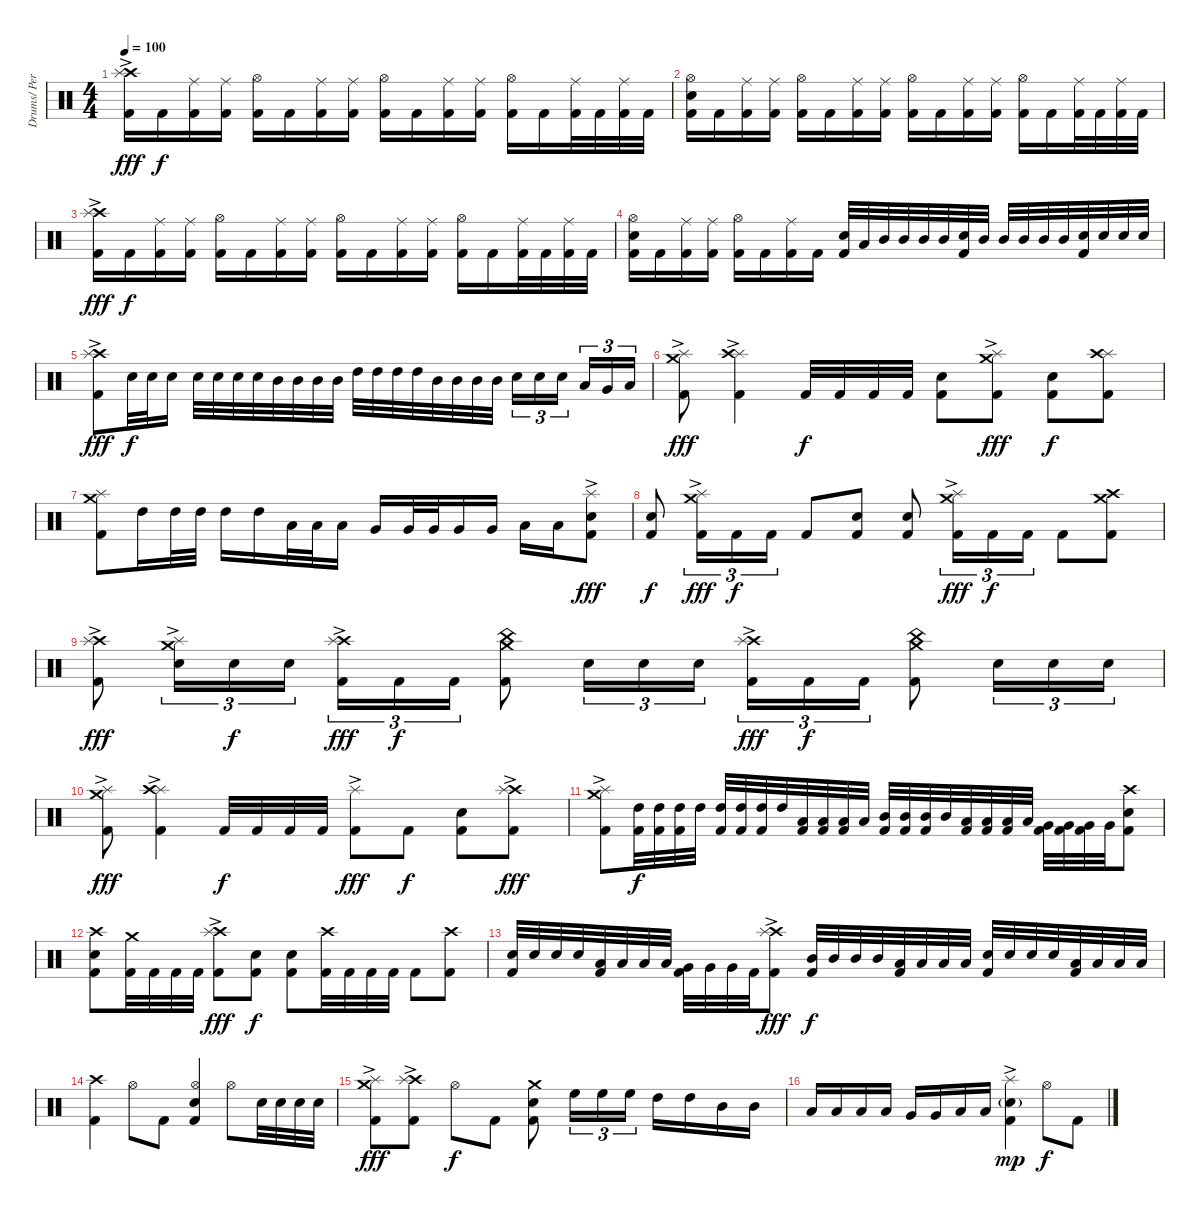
\track ("Drums/ Percussion - Tony Laureano" "Drums/ Per") {instrument percussion}
\staff {score}
\articulation defaults
\ts (4 4)
\tempo 100
\clef neutral
\ks c
("Crash high (hit)" "Splash (hit)"{ac} "Kick (hit) 2").16{dy fff} "Kick (hit) 2".16{dy f} ("Ride (middle)" "Kick (hit) 2").16 ("Ride (middle)" "Kick (hit) 2").16 ("Hi-Hat (open)" "Kick (hit) 2").16 "Kick (hit) 2".16 ("Ride (middle)" "Kick (hit) 2").16 ("Ride (middle)" "Kick (hit) 2").16 ("Hi-Hat (open)" "Kick (hit) 2").16 "Kick (hit) 2".16 ("Ride (middle)" "Kick (hit) 2").16 ("Ride (middle)" "Kick (hit) 2").16 ("Hi-Hat (open)" "Kick (hit) 2").16 "Kick (hit) 2".16 ("Ride (middle)" "Kick (hit) 2").32 "Kick (hit) 2".32 ("Ride (middle)" "Kick (hit) 2").32 "Kick (hit) 2".32 |
("Hi-Hat (open)" "Electric Snare (hit)" "Kick (hit) 2").16 "Kick (hit) 2".16 ("Ride (middle)" "Kick (hit) 2").16 ("Ride (middle)" "Kick (hit) 2").16 ("Hi-Hat (open)" "Kick (hit) 2").16 "Kick (hit) 2".16 ("Ride (middle)" "Kick (hit) 2").16 ("Ride (middle)" "Kick (hit) 2").16 ("Hi-Hat (open)" "Kick (hit) 2").16 "Kick (hit) 2".16 ("Ride (middle)" "Kick (hit) 2").16 ("Ride (middle)" "Kick (hit) 2").16 ("Hi-Hat (open)" "Kick (hit) 2").16 "Kick (hit) 2".16 ("Ride (middle)" "Kick (hit) 2").32 "Kick (hit) 2".32 ("Ride (middle)" "Kick (hit) 2").32 "Kick (hit) 2".32 |
("Crash high (hit)" "Splash (hit)"{ac} "Kick (hit) 2").16{dy fff} "Kick (hit) 2".16{dy f} ("Ride (middle)" "Kick (hit) 2").16 ("Ride (middle)" "Kick (hit) 2").16 ("Hi-Hat (open)" "Kick (hit) 2").16 "Kick (hit) 2".16 ("Ride (middle)" "Kick (hit) 2").16 ("Ride (middle)" "Kick (hit) 2").16 ("Hi-Hat (open)" "Kick (hit) 2").16 "Kick (hit) 2".16 ("Ride (middle)" "Kick (hit) 2").16 ("Ride (middle)" "Kick (hit) 2").16 ("Hi-Hat (open)" "Kick (hit) 2").16 "Kick (hit) 2".16 ("Ride (middle)" "Kick (hit) 2").32 "Kick (hit) 2".32 ("Ride (middle)" "Kick (hit) 2").32 "Kick (hit) 2".32 |
("Hi-Hat (open)" "Electric Snare (hit)" "Kick (hit) 2").16 "Kick (hit) 2".16 ("Ride (middle)" "Kick (hit) 2").16 ("Ride (middle)" "Kick (hit) 2").16 ("Hi-Hat (open)" "Kick (hit) 2").16 "Kick (hit) 2".16 ("Ride (middle)" "Kick (hit) 2").16 "Kick (hit) 2".16 ("Electric Snare (hit)" "Kick (hit) 2").32 "Low Tom (hit)".32 "Mid Tom (hit)".32 "Mid Tom (hit)".32 "Mid Tom (hit)".32 "Mid Tom (hit)".32 ("Electric Snare (hit)" "Kick (hit) 2").32 "Mid Tom (hit)".32 "Mid Tom (hit)".32 "Mid Tom (hit)".32 "Mid Tom (hit)".32 "Mid Tom (hit)".32 ("Electric Snare (hit)" "Kick (hit) 2").32 "Electric Snare (hit)".32 "Electric Snare (hit)".32 "Electric Snare (hit)".32 |
("Crash high (hit)" "Splash (hit)"{ac} "Kick (hit) 2").8{dy fff} "Electric Snare (hit)".32{dy f} "Electric Snare (hit)".32 "Electric Snare (hit)".16 "Electric Snare (hit)".32 "Electric Snare (hit)".32 "Electric Snare (hit)".32 "Electric Snare (hit)".32 "Mid Tom (hit)".32 "Mid Tom (hit)".32 "Mid Tom (hit)".32 "Mid Tom (hit)".32 "High Tom (hit)".32 "High Tom (hit)".32 "High Tom (hit)".32 "High Tom (hit)".32 "Mid Tom (hit)".32 "Mid Tom (hit)".32 "Mid Tom (hit)".32 "Mid Tom (hit)".32 "Electric Snare (hit)".16{tu (3 2)} "Electric Snare (hit)".16{tu (3 2)} "Electric Snare (hit)".16{tu (3 2)} "Low Tom (hit)".16{tu (3 2)} "Very Low Tom (hit)".16{tu (3 2)} "Low Floor Tom (hit)".16{tu (3 2)} |
("Splash (hit)"{ac} "Crash medium (hit)" "Kick (hit) 2").8{dy fff} ("Splash (hit)"{ac} "Crash high (hit)" "Kick (hit) 2").4 "Kick (hit) 2".32{dy f} "Kick (hit) 2".32 "Kick (hit) 2".32 "Kick (hit) 2".32 ("Electric Snare (hit)" "Kick (hit) 2").8 ("Splash (hit)"{ac} "Crash medium (hit)" "Kick (hit) 2").8{dy fff} ("Electric Snare (hit)" "Kick (hit) 2").8{dy f} ("Splash (hit)" "Crash high (hit)" "Kick (hit) 2").8 |
("Splash (hit)" "Crash medium (hit)" "Kick (hit) 2").8 "High Tom (hit)".16 "High Tom (hit)".32 "High Tom (hit)".32 "High Tom (hit)".16 "High Tom (hit)".16 "Low Tom (hit)".32 "Low Tom (hit)".32 "Low Tom (hit)".16 "Very Low Tom (hit)".16 "Very Low Tom (hit)".32 "Very Low Tom (hit)".32 "Very Low Tom (hit)".16 "Very Low Tom (hit)".16 "Low Floor Tom (hit)".16 "Low Floor Tom (hit)".16 ("Splash (hit)"{ac} "Electric Snare (hit)" "Kick (hit) 2").8{dy fff} |
("Electric Snare (hit)" "Kick (hit) 2").8{dy f} ("Splash (hit)"{ac} "Crash medium (hit)" "Kick (hit) 2").16{tu (3 2) dy fff} "Kick (hit) 2".16{tu (3 2) dy f} "Kick (hit) 2".16{tu (3 2)} "Kick (hit) 2".8 ("Electric Snare (hit)" "Kick (hit) 2").8 ("Electric Snare (hit)" "Kick (hit) 2").8 ("Splash (hit)"{ac} "Crash medium (hit)" "Kick (hit) 2").16{tu (3 2) dy fff} "Kick (hit) 2".16{tu (3 2) dy f} "Kick (hit) 2".16{tu (3 2)} "Kick (hit) 2".8 ("Crash medium (hit)" "Crash high (hit)" "Kick (hit) 2").8 |
("Crash high (hit)" "Splash (hit)"{ac} "Kick (hit) 2").8{dy fff} ("Splash (hit)"{ac} "Crash medium (hit)" "Electric Snare (hit)").16{tu (3 2)} "Electric Snare (hit)".16{tu (3 2) dy f} "Electric Snare (hit)".16{tu (3 2)} ("Crash high (hit)" "Splash (hit)"{ac} "Kick (hit) 2").16{tu (3 2) dy fff} "Kick (hit) 2".16{tu (3 2) dy f} "Kick (hit) 2".16{tu (3 2)} ("Crash medium (hit)" "China (hit)" "Kick (hit) 2").8 "Electric Snare (hit)".16{tu (3 2)} "Electric Snare (hit)".16{tu (3 2)} "Electric Snare (hit)".16{tu (3 2)} ("Crash high (hit)" "Splash (hit)"{ac} "Kick (hit) 2").16{tu (3 2) dy fff} "Kick (hit) 2".16{tu (3 2) dy f} "Kick (hit) 2".16{tu (3 2)} ("Crash medium (hit)" "China (hit)" "Kick (hit) 2").8 "Electric Snare (hit)".16{tu (3 2)} "Electric Snare (hit)".16{tu (3 2)} "Electric Snare (hit)".16{tu (3 2)} |
("Splash (hit)"{ac} "Crash medium (hit)" "Kick (hit) 2").8{dy fff} ("Splash (hit)"{ac} "Crash high (hit)" "Kick (hit) 2").4 "Kick (hit) 2".32{dy f} "Kick (hit) 2".32 "Kick (hit) 2".32 "Kick (hit) 2".32 ("Splash (hit)"{ac} "Kick (hit) 2").8{dy fff} "Kick (hit) 2".8{dy f} ("Electric Snare (hit)" "Kick (hit) 2").8 ("Crash high (hit)" "Splash (hit)"{ac} "Kick (hit) 2").8{dy fff} |
("Crash medium (hit)" "Splash (hit)"{ac} "Kick (hit) 2").8 ("High Tom (hit)" "Kick (hit) 2").32{dy f} ("High Tom (hit)" "Kick (hit) 2").32 ("High Tom (hit)" "Kick (hit) 2").32 "High Tom (hit)".32 ("High Tom (hit)" "Kick (hit) 2").32 ("High Tom (hit)" "Kick (hit) 2").32 ("High Tom (hit)" "Kick (hit) 2").32 "High Tom (hit)".32 ("Low Tom (hit)" "Kick (hit) 2").32 ("Low Tom (hit)" "Kick (hit) 2").32 ("Low Tom (hit)" "Kick (hit) 2").32 "Low Tom (hit)".32 ("Mid Tom (hit)" "Kick (hit) 2").32 ("Mid Tom (hit)" "Kick (hit) 2").32 ("Mid Tom (hit)" "Kick (hit) 2").32 "Mid Tom (hit)".32 ("Low Tom (hit)" "Kick (hit) 2").32 ("Low Tom (hit)" "Kick (hit) 2").32 ("Low Tom (hit)" "Kick (hit) 2").32 "Low Tom (hit)".32 ("Very Low Tom (hit)" "Kick (hit) 2").32 ("Very Low Tom (hit)" "Kick (hit) 2").32 ("Very Low Tom (hit)" "Kick (hit) 2").32 "Very Low Tom (hit)".32 ("Crash high (hit)" "Electric Snare (hit)" "Kick (hit) 2").8 |
("Crash high (hit)" "Electric Snare (hit)" "Kick (hit) 2").8 ("Crash medium (hit)" "Kick (hit) 2").32 "Kick (hit) 2".32 "Kick (hit) 2".32 "Kick (hit) 2".32 ("Crash high (hit)" "Splash (hit)"{ac} "Kick (hit) 2").8{dy fff} ("Electric Snare (hit)" "Kick (hit) 2").8{dy f} ("Electric Snare (hit)" "Kick (hit) 2").8 ("Crash high (hit)" "Kick (hit) 2").32 "Kick (hit) 2".32 "Kick (hit) 2".32 "Kick (hit) 2".32 "Kick (hit) 2".8 ("Crash high (hit)" "Kick (hit) 2").8 |
("Electric Snare (hit)" "Kick (hit) 2").32 "Electric Snare (hit)".32 "Electric Snare (hit)".32 "Electric Snare (hit)".32 ("Low Tom (hit)" "Kick (hit) 2").32 "Low Tom (hit)".32 "Low Tom (hit)".32 "Low Tom (hit)".32 ("Very Low Tom (hit)" "Kick (hit) 2").32 "Very Low Tom (hit)".32 "Very Low Tom (hit)".32 "Kick (hit) 2".32 ("Crash high (hit)" "Splash (hit)"{ac} "Kick (hit) 2").8{dy fff} ("Mid Tom (hit)" "Kick (hit) 2").32{dy f} "Mid Tom (hit)".32 "Mid Tom (hit)".32 "Mid Tom (hit)".32 ("Low Tom (hit)" "Kick (hit) 2").32 "Low Tom (hit)".32 "Low Tom (hit)".32 "Low Tom (hit)".32 ("Electric Snare (hit)" "Kick (hit) 2").32 "Electric Snare (hit)".32 "Electric Snare (hit)".32 "Electric Snare (hit)".32 ("Low Floor Tom (hit)" "Kick (hit) 2").32 "Low Floor Tom (hit)".32 "Low Floor Tom (hit)".32 "Low Floor Tom (hit)".32 |
("Crash high (hit)" "Kick (hit) 2").4 "Hi-Hat (open)".8 "Kick (hit) 2".8 ("Hi-Hat (open)" "Electric Snare (hit)" "Kick (hit) 2").4 "Hi-Hat (open)".8 "Electric Snare (hit)".32 "Electric Snare (hit)".32 "Electric Snare (hit)".32 "Electric Snare (hit)".32 |
("Crash medium (hit)" "Splash (hit)"{ac} "Kick (hit) 2").8{dy fff} ("Crash high (hit)" "Splash (hit)"{ac} "Kick (hit) 2").8 "Hi-Hat (open)".8{dy f} "Kick (hit) 2".8 ("Crash medium (hit)" "Electric Snare (hit)" "Kick (hit) 2").8 "High Floor Tom (hit)".16{tu (3 2)} "High Floor Tom (hit)".16{tu (3 2)} "High Floor Tom (hit)".16{tu (3 2)} "High Tom (hit)".16 "High Tom (hit)".16 "Mid Tom (hit)".16 "Mid Tom (hit)".16 |
"Low Tom (hit)".16 "Low Tom (hit)".16 "Low Tom (hit)".16 "Low Tom (hit)".16 "Very Low Tom (hit)".16 "Very Low Tom (hit)".16 "Low Floor Tom (hit)".16 "Low Floor Tom (hit)".16 ("Splash (hit)"{ac} "Electric Snare (hit)"{g} "Kick (hit) 2").4{dy mp} "Hi-Hat (open)".8{dy f} "Kick (hit) 2".8
